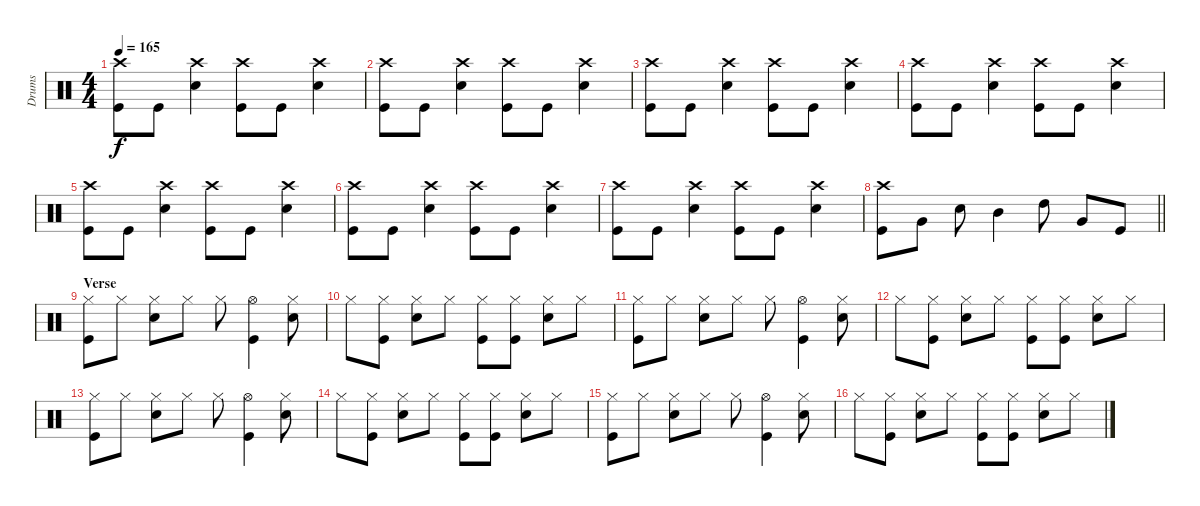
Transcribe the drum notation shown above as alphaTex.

\track ("Drums" "Drums") {instrument percussion}
\staff {score}
\articulation defaults
\ts (4 4)
\tempo 165
\clef neutral
\ks c
("Crash high (hit)" "Kick (hit)").8{dy f} "Kick (hit)".8 ("Crash high (hit)" "Snare (hit) 2").4 ("Crash high (hit)" "Kick (hit)").8 "Kick (hit)".8 ("Crash high (hit)" "Snare (hit) 2").4 |
("Crash high (hit)" "Kick (hit)").8 "Kick (hit)".8 ("Crash high (hit)" "Snare (hit) 2").4 ("Crash high (hit)" "Kick (hit)").8 "Kick (hit)".8 ("Crash high (hit)" "Snare (hit) 2").4 |
("Crash high (hit)" "Kick (hit)").8 "Kick (hit)".8 ("Crash high (hit)" "Snare (hit) 2").4 ("Crash high (hit)" "Kick (hit)").8 "Kick (hit)".8 ("Crash high (hit)" "Snare (hit) 2").4 |
("Crash high (hit)" "Kick (hit)").8 "Kick (hit)".8 ("Crash high (hit)" "Snare (hit) 2").4 ("Crash high (hit)" "Kick (hit)").8 "Kick (hit)".8 ("Crash high (hit)" "Snare (hit) 2").4 |
("Crash high (hit)" "Kick (hit)").8 "Kick (hit)".8 ("Crash high (hit)" "Snare (hit) 2").4 ("Crash high (hit)" "Kick (hit)").8 "Kick (hit)".8 ("Crash high (hit)" "Snare (hit) 2").4 |
("Crash high (hit)" "Kick (hit)").8 "Kick (hit)".8 ("Crash high (hit)" "Snare (hit) 2").4 ("Crash high (hit)" "Kick (hit)").8 "Kick (hit)".8 ("Crash high (hit)" "Snare (hit) 2").4 |
("Crash high (hit)" "Kick (hit)").8 "Kick (hit)".8 ("Crash high (hit)" "Snare (hit) 2").4 ("Crash high (hit)" "Kick (hit)").8 "Kick (hit)".8 ("Crash high (hit)" "Snare (hit) 2").4 |
\barLineRight lightlight
("Crash high (hit)" "Kick (hit)").8 "Very Low Tom (hit)".8 "Snare (hit) 2".8 "Mid Tom (hit)".4 "High Tom (hit)".8 "Very Low Tom (hit)".8 "Kick (hit)".8 |
\section ("" "Verse")
("Hi-Hat (closed)" "Kick (hit)").8 "Hi-Hat (closed)".8 ("Hi-Hat (closed)" "Snare (hit) 2").8 "Hi-Hat (closed)".8 "Hi-Hat (closed)".8 ("Hi-Hat (open)" "Kick (hit)").4 ("Hi-Hat (closed)" "Snare (hit) 2").8 |
"Hi-Hat (closed)".8 ("Hi-Hat (closed)" "Kick (hit)").8 ("Hi-Hat (closed)" "Snare (hit) 2").8 "Hi-Hat (closed)".8 ("Hi-Hat (closed)" "Kick (hit)").8 ("Hi-Hat (closed)" "Kick (hit)").8 ("Hi-Hat (closed)" "Snare (hit) 2").8 "Hi-Hat (closed)".8 |
("Hi-Hat (closed)" "Kick (hit)").8 "Hi-Hat (closed)".8 ("Hi-Hat (closed)" "Snare (hit) 2").8 "Hi-Hat (closed)".8 "Hi-Hat (closed)".8 ("Hi-Hat (open)" "Kick (hit)").4 ("Hi-Hat (closed)" "Snare (hit) 2").8 |
"Hi-Hat (closed)".8 ("Hi-Hat (closed)" "Kick (hit)").8 ("Hi-Hat (closed)" "Snare (hit) 2").8 "Hi-Hat (closed)".8 ("Hi-Hat (closed)" "Kick (hit)").8 ("Hi-Hat (closed)" "Kick (hit)").8 ("Hi-Hat (closed)" "Snare (hit) 2").8 "Hi-Hat (closed)".8 |
("Hi-Hat (closed)" "Kick (hit)").8 "Hi-Hat (closed)".8 ("Hi-Hat (closed)" "Snare (hit) 2").8 "Hi-Hat (closed)".8 "Hi-Hat (closed)".8 ("Hi-Hat (open)" "Kick (hit)").4 ("Hi-Hat (closed)" "Snare (hit) 2").8 |
"Hi-Hat (closed)".8 ("Hi-Hat (closed)" "Kick (hit)").8 ("Hi-Hat (closed)" "Snare (hit) 2").8 "Hi-Hat (closed)".8 ("Hi-Hat (closed)" "Kick (hit)").8 ("Hi-Hat (closed)" "Kick (hit)").8 ("Hi-Hat (closed)" "Snare (hit) 2").8 "Hi-Hat (closed)".8 |
("Hi-Hat (closed)" "Kick (hit)").8 "Hi-Hat (closed)".8 ("Hi-Hat (closed)" "Snare (hit) 2").8 "Hi-Hat (closed)".8 "Hi-Hat (closed)".8 ("Hi-Hat (open)" "Kick (hit)").4 ("Hi-Hat (closed)" "Snare (hit) 2").8 |
"Hi-Hat (closed)".8 ("Hi-Hat (closed)" "Kick (hit)").8 ("Hi-Hat (closed)" "Snare (hit) 2").8 "Hi-Hat (closed)".8 ("Hi-Hat (closed)" "Kick (hit)").8 ("Hi-Hat (closed)" "Kick (hit)").8 ("Hi-Hat (closed)" "Snare (hit) 2").8 "Hi-Hat (closed)".8
